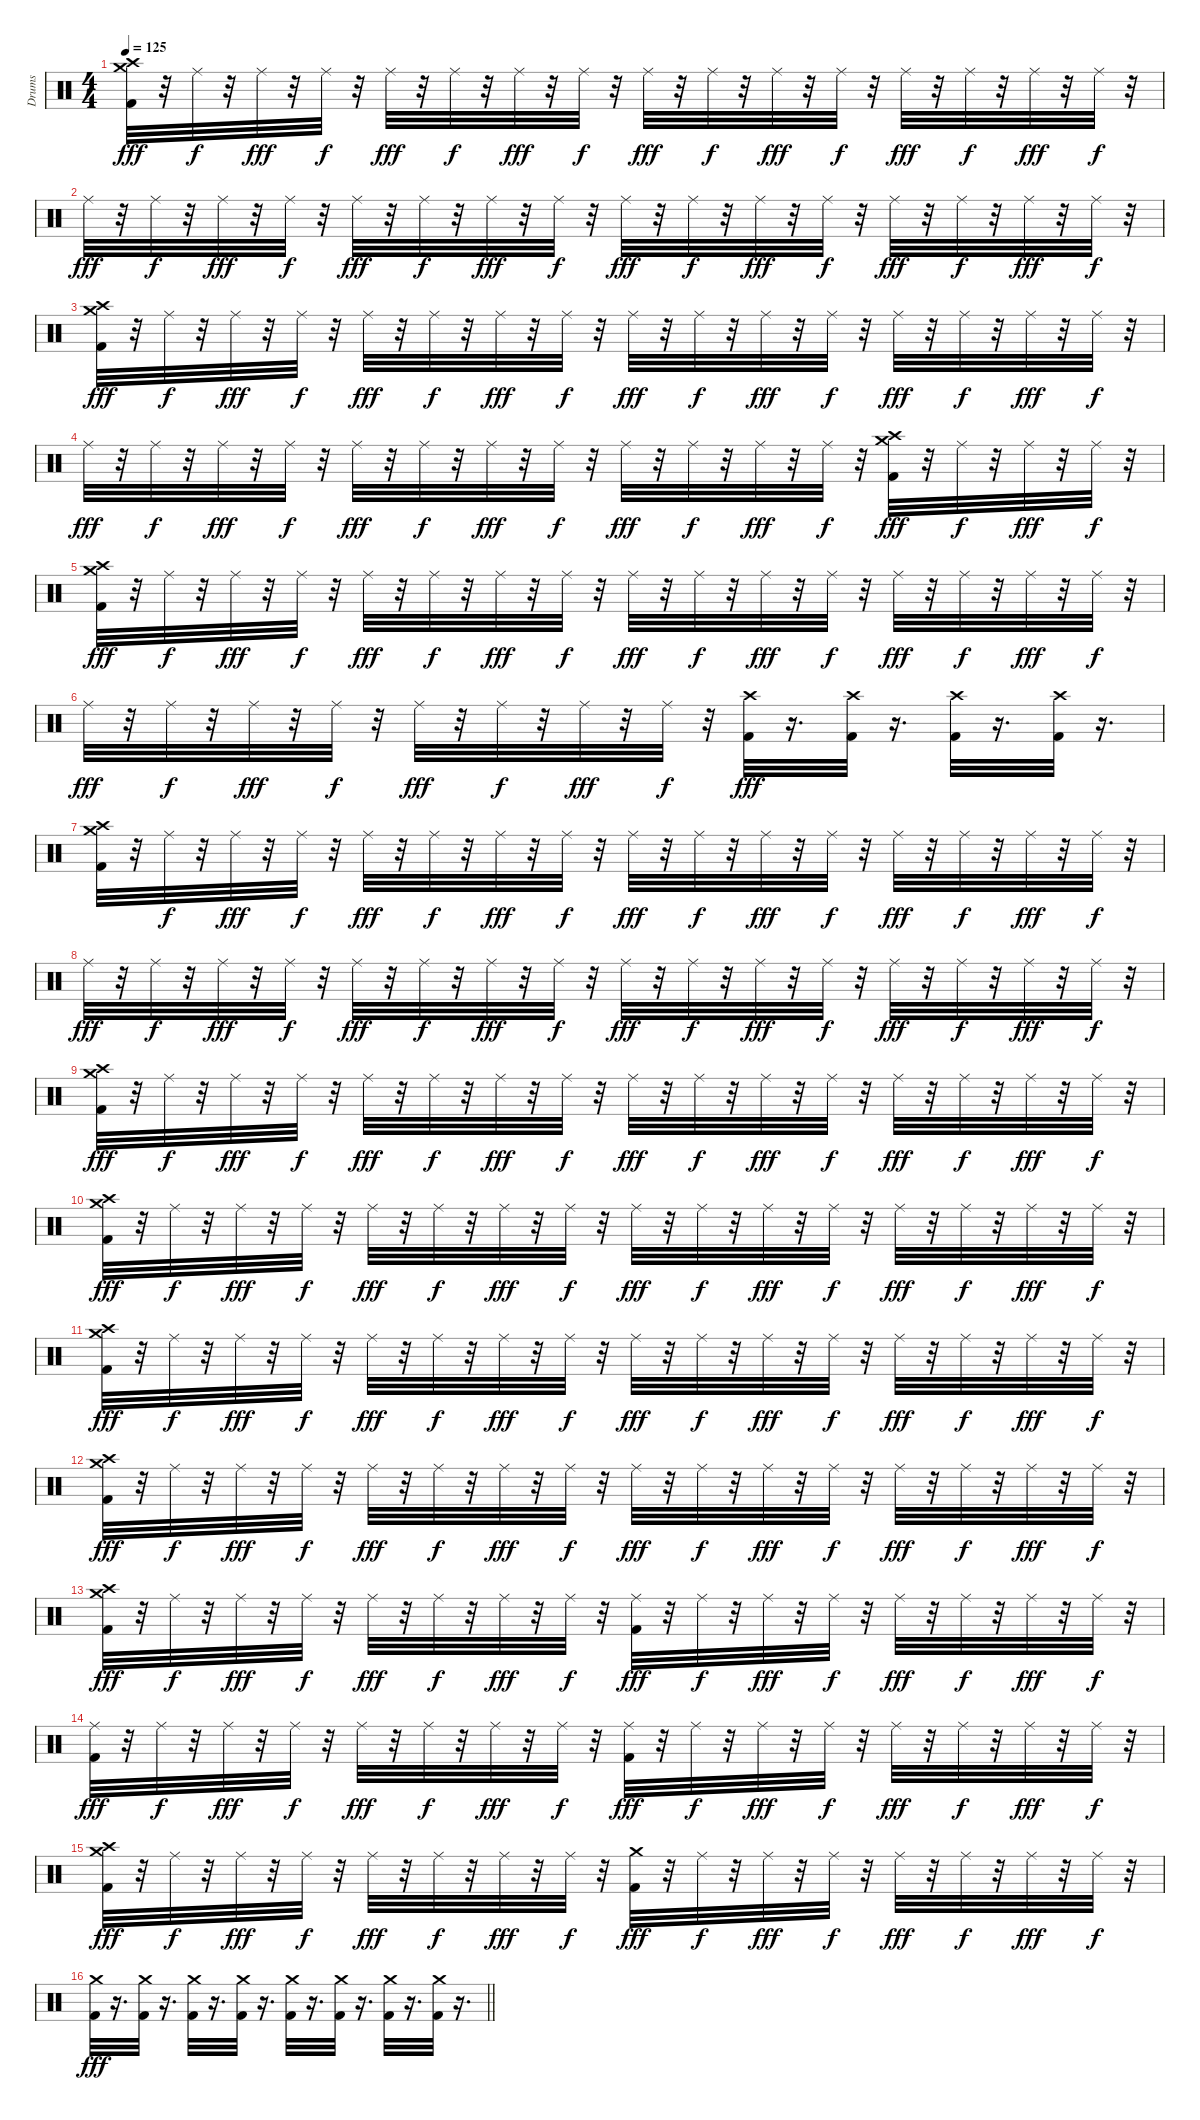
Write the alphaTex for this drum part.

\track ("Drums" "Drums") {instrument percussion}
\staff {score}
\articulation defaults
\ts (4 4)
\tempo 125
\clef neutral
\ks c
("Crash medium (hit)" "Crash high (hit)" "Kick (hit) 2").32{dy fff} r.32 "Ride (middle)".32{dy f} r.32 "Ride (middle)".32{dy fff} r.32 "Ride (middle)".32{dy f} r.32 "Ride (middle)".32{dy fff} r.32 "Ride (middle)".32{dy f} r.32 "Ride (middle)".32{dy fff} r.32 "Ride (middle)".32{dy f} r.32 "Ride (middle)".32{dy fff} r.32 "Ride (middle)".32{dy f} r.32 "Ride (middle)".32{dy fff} r.32 "Ride (middle)".32{dy f} r.32 "Ride (middle)".32{dy fff} r.32 "Ride (middle)".32{dy f} r.32 "Ride (middle)".32{dy fff} r.32 "Ride (middle)".32{dy f} r.32 |
"Ride (middle)".32{dy fff} r.32 "Ride (middle)".32{dy f} r.32 "Ride (middle)".32{dy fff} r.32 "Ride (middle)".32{dy f} r.32 "Ride (middle)".32{dy fff} r.32 "Ride (middle)".32{dy f} r.32 "Ride (middle)".32{dy fff} r.32 "Ride (middle)".32{dy f} r.32 "Ride (middle)".32{dy fff} r.32 "Ride (middle)".32{dy f} r.32 "Ride (middle)".32{dy fff} r.32 "Ride (middle)".32{dy f} r.32 "Ride (middle)".32{dy fff} r.32 "Ride (middle)".32{dy f} r.32 "Ride (middle)".32{dy fff} r.32 "Ride (middle)".32{dy f} r.32 |
("Crash medium (hit)" "Crash high (hit)" "Kick (hit) 2").32{dy fff} r.32 "Ride (middle)".32{dy f} r.32 "Ride (middle)".32{dy fff} r.32 "Ride (middle)".32{dy f} r.32 "Ride (middle)".32{dy fff} r.32 "Ride (middle)".32{dy f} r.32 "Ride (middle)".32{dy fff} r.32 "Ride (middle)".32{dy f} r.32 "Ride (middle)".32{dy fff} r.32 "Ride (middle)".32{dy f} r.32 "Ride (middle)".32{dy fff} r.32 "Ride (middle)".32{dy f} r.32 "Ride (middle)".32{dy fff} r.32 "Ride (middle)".32{dy f} r.32 "Ride (middle)".32{dy fff} r.32 "Ride (middle)".32{dy f} r.32 |
"Ride (middle)".32{dy fff} r.32 "Ride (middle)".32{dy f} r.32 "Ride (middle)".32{dy fff} r.32 "Ride (middle)".32{dy f} r.32 "Ride (middle)".32{dy fff} r.32 "Ride (middle)".32{dy f} r.32 "Ride (middle)".32{dy fff} r.32 "Ride (middle)".32{dy f} r.32 "Ride (middle)".32{dy fff} r.32 "Ride (middle)".32{dy f} r.32 "Ride (middle)".32{dy fff} r.32 "Ride (middle)".32{dy f} r.32 ("Crash medium (hit)" "Crash high (hit)" "Kick (hit) 2").32{dy fff} r.32 "Ride (middle)".32{dy f} r.32 "Ride (middle)".32{dy fff} r.32 "Ride (middle)".32{dy f} r.32 |
("Crash medium (hit)" "Crash high (hit)" "Kick (hit) 2").32{dy fff} r.32 "Ride (middle)".32{dy f} r.32 "Ride (middle)".32{dy fff} r.32 "Ride (middle)".32{dy f} r.32 "Ride (middle)".32{dy fff} r.32 "Ride (middle)".32{dy f} r.32 "Ride (middle)".32{dy fff} r.32 "Ride (middle)".32{dy f} r.32 "Ride (middle)".32{dy fff} r.32 "Ride (middle)".32{dy f} r.32 "Ride (middle)".32{dy fff} r.32 "Ride (middle)".32{dy f} r.32 "Ride (middle)".32{dy fff} r.32 "Ride (middle)".32{dy f} r.32 "Ride (middle)".32{dy fff} r.32 "Ride (middle)".32{dy f} r.32 |
"Ride (middle)".32{dy fff} r.32 "Ride (middle)".32{dy f} r.32 "Ride (middle)".32{dy fff} r.32 "Ride (middle)".32{dy f} r.32 "Ride (middle)".32{dy fff} r.32 "Ride (middle)".32{dy f} r.32 "Ride (middle)".32{dy fff} r.32 "Ride (middle)".32{dy f} r.32 ("Crash high (hit)" "Kick (hit) 2").32{dy fff} r.16{d} ("Crash high (hit)" "Kick (hit) 2").32 r.16{d} ("Crash high (hit)" "Kick (hit) 2").32 r.16{d} ("Crash high (hit)" "Kick (hit) 2").32 r.16{d} |
("Crash medium (hit)" "Crash high (hit)" "Kick (hit) 2").32 r.32 "Ride (middle)".32{dy f} r.32 "Ride (middle)".32{dy fff} r.32 "Ride (middle)".32{dy f} r.32 "Ride (middle)".32{dy fff} r.32 "Ride (middle)".32{dy f} r.32 "Ride (middle)".32{dy fff} r.32 "Ride (middle)".32{dy f} r.32 "Ride (middle)".32{dy fff} r.32 "Ride (middle)".32{dy f} r.32 "Ride (middle)".32{dy fff} r.32 "Ride (middle)".32{dy f} r.32 "Ride (middle)".32{dy fff} r.32 "Ride (middle)".32{dy f} r.32 "Ride (middle)".32{dy fff} r.32 "Ride (middle)".32{dy f} r.32 |
"Ride (middle)".32{dy fff} r.32 "Ride (middle)".32{dy f} r.32 "Ride (middle)".32{dy fff} r.32 "Ride (middle)".32{dy f} r.32 "Ride (middle)".32{dy fff} r.32 "Ride (middle)".32{dy f} r.32 "Ride (middle)".32{dy fff} r.32 "Ride (middle)".32{dy f} r.32 "Ride (middle)".32{dy fff} r.32 "Ride (middle)".32{dy f} r.32 "Ride (middle)".32{dy fff} r.32 "Ride (middle)".32{dy f} r.32 "Ride (middle)".32{dy fff} r.32 "Ride (middle)".32{dy f} r.32 "Ride (middle)".32{dy fff} r.32 "Ride (middle)".32{dy f} r.32 |
("Crash medium (hit)" "Crash high (hit)" "Kick (hit) 2").32{dy fff} r.32 "Ride (middle)".32{dy f} r.32 "Ride (middle)".32{dy fff} r.32 "Ride (middle)".32{dy f} r.32 "Ride (middle)".32{dy fff} r.32 "Ride (middle)".32{dy f} r.32 "Ride (middle)".32{dy fff} r.32 "Ride (middle)".32{dy f} r.32 "Ride (middle)".32{dy fff} r.32 "Ride (middle)".32{dy f} r.32 "Ride (middle)".32{dy fff} r.32 "Ride (middle)".32{dy f} r.32 "Ride (middle)".32{dy fff} r.32 "Ride (middle)".32{dy f} r.32 "Ride (middle)".32{dy fff} r.32 "Ride (middle)".32{dy f} r.32 |
("Crash medium (hit)" "Crash high (hit)" "Kick (hit) 2").32{dy fff} r.32 "Ride (middle)".32{dy f} r.32 "Ride (middle)".32{dy fff} r.32 "Ride (middle)".32{dy f} r.32 "Ride (middle)".32{dy fff} r.32 "Ride (middle)".32{dy f} r.32 "Ride (middle)".32{dy fff} r.32 "Ride (middle)".32{dy f} r.32 "Ride (middle)".32{dy fff} r.32 "Ride (middle)".32{dy f} r.32 "Ride (middle)".32{dy fff} r.32 "Ride (middle)".32{dy f} r.32 "Ride (middle)".32{dy fff} r.32 "Ride (middle)".32{dy f} r.32 "Ride (middle)".32{dy fff} r.32 "Ride (middle)".32{dy f} r.32 |
("Crash medium (hit)" "Crash high (hit)" "Kick (hit) 2").32{dy fff} r.32 "Ride (middle)".32{dy f} r.32 "Ride (middle)".32{dy fff} r.32 "Ride (middle)".32{dy f} r.32 "Ride (middle)".32{dy fff} r.32 "Ride (middle)".32{dy f} r.32 "Ride (middle)".32{dy fff} r.32 "Ride (middle)".32{dy f} r.32 "Ride (middle)".32{dy fff} r.32 "Ride (middle)".32{dy f} r.32 "Ride (middle)".32{dy fff} r.32 "Ride (middle)".32{dy f} r.32 "Ride (middle)".32{dy fff} r.32 "Ride (middle)".32{dy f} r.32 "Ride (middle)".32{dy fff} r.32 "Ride (middle)".32{dy f} r.32 |
("Crash medium (hit)" "Crash high (hit)" "Kick (hit) 2").32{dy fff} r.32 "Ride (middle)".32{dy f} r.32 "Ride (middle)".32{dy fff} r.32 "Ride (middle)".32{dy f} r.32 "Ride (middle)".32{dy fff} r.32 "Ride (middle)".32{dy f} r.32 "Ride (middle)".32{dy fff} r.32 "Ride (middle)".32{dy f} r.32 "Ride (middle)".32{dy fff} r.32 "Ride (middle)".32{dy f} r.32 "Ride (middle)".32{dy fff} r.32 "Ride (middle)".32{dy f} r.32 "Ride (middle)".32{dy fff} r.32 "Ride (middle)".32{dy f} r.32 "Ride (middle)".32{dy fff} r.32 "Ride (middle)".32{dy f} r.32 |
("Kick (hit) 2" "Crash medium (hit)" "Crash high (hit)").32{dy fff} r.32 "Ride (middle)".32{dy f} r.32 "Ride (middle)".32{dy fff} r.32 "Ride (middle)".32{dy f} r.32 "Ride (middle)".32{dy fff} r.32 "Ride (middle)".32{dy f} r.32 "Ride (middle)".32{dy fff} r.32 "Ride (middle)".32{dy f} r.32 ("Kick (hit) 2" "Ride (middle)").32{dy fff} r.32 "Ride (middle)".32{dy f} r.32 "Ride (middle)".32{dy fff} r.32 "Ride (middle)".32{dy f} r.32 "Ride (middle)".32{dy fff} r.32 "Ride (middle)".32{dy f} r.32 "Ride (middle)".32{dy fff} r.32 "Ride (middle)".32{dy f} r.32 |
("Kick (hit) 2" "Ride (middle)").32{dy fff} r.32 "Ride (middle)".32{dy f} r.32 "Ride (middle)".32{dy fff} r.32 "Ride (middle)".32{dy f} r.32 "Ride (middle)".32{dy fff} r.32 "Ride (middle)".32{dy f} r.32 "Ride (middle)".32{dy fff} r.32 "Ride (middle)".32{dy f} r.32 ("Kick (hit) 2" "Ride (middle)").32{dy fff} r.32 "Ride (middle)".32{dy f} r.32 "Ride (middle)".32{dy fff} r.32 "Ride (middle)".32{dy f} r.32 "Ride (middle)".32{dy fff} r.32 "Ride (middle)".32{dy f} r.32 "Ride (middle)".32{dy fff} r.32 "Ride (middle)".32{dy f} r.32 |
("Crash medium (hit)" "Crash high (hit)" "Kick (hit) 2").32{dy fff} r.32 "Ride (middle)".32{dy f} r.32 "Ride (middle)".32{dy fff} r.32 "Ride (middle)".32{dy f} r.32 "Ride (middle)".32{dy fff} r.32 "Ride (middle)".32{dy f} r.32 "Ride (middle)".32{dy fff} r.32 "Ride (middle)".32{dy f} r.32 ("Crash medium (hit)" "Kick (hit) 2").32{dy fff} r.32 "Ride (middle)".32{dy f} r.32 "Ride (middle)".32{dy fff} r.32 "Ride (middle)".32{dy f} r.32 "Ride (middle)".32{dy fff} r.32 "Ride (middle)".32{dy f} r.32 "Ride (middle)".32{dy fff} r.32 "Ride (middle)".32{dy f} r.32 |
\barLineRight lightlight
("Crash medium (hit)" "Kick (hit) 2").32{dy fff} r.16{d} ("Crash medium (hit)" "Kick (hit) 2").32 r.16{d} ("Crash medium (hit)" "Kick (hit) 2").32 r.16{d} ("Crash medium (hit)" "Kick (hit) 2").32 r.16{d} ("Crash medium (hit)" "Kick (hit) 2").32 r.16{d} ("Crash medium (hit)" "Kick (hit) 2").32 r.16{d} ("Crash medium (hit)" "Kick (hit) 2").32 r.16{d} ("Crash medium (hit)" "Kick (hit) 2").32 r.16{d}
